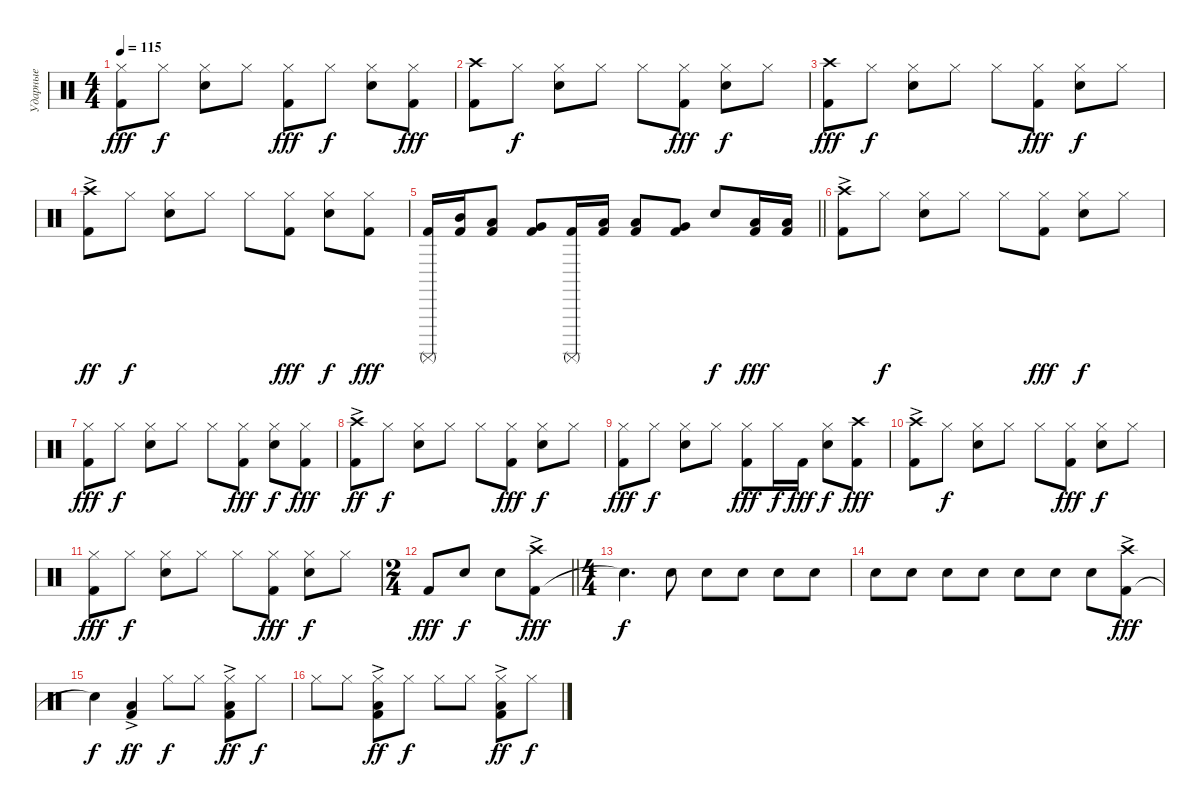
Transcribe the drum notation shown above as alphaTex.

\track ("Ударные" "Ударные") {instrument percussion}
\staff {score}
\articulation defaults
\ts (4 4)
\tempo 115
\clef neutral
\ks c
("Kick (hit) 2" "Hi-Hat (closed)").8{dy fff} "Hi-Hat (closed)".8{dy f} ("Snare (hit) 2" "Hi-Hat (closed)").8 "Hi-Hat (closed)".8 ("Kick (hit) 2" "Hi-Hat (closed)").8{dy fff} "Hi-Hat (closed)".8{dy f} ("Snare (hit) 2" "Hi-Hat (closed)").8 ("Kick (hit) 2" "Hi-Hat (closed)").8{dy fff} |
("Kick (hit) 2" "Crash high (hit)").8 "Hi-Hat (closed)".8{dy f} ("Snare (hit) 2" "Hi-Hat (closed)").8 "Hi-Hat (closed)".8 "Hi-Hat (closed)".8 ("Kick (hit) 2" "Hi-Hat (closed)").8{dy fff} ("Snare (hit) 2" "Hi-Hat (closed)").8{dy f} "Hi-Hat (closed)".8 |
("Kick (hit) 2" "Crash high (hit)").8{dy fff} "Hi-Hat (closed)".8{dy f} ("Snare (hit) 2" "Hi-Hat (closed)").8 "Hi-Hat (closed)".8 "Hi-Hat (closed)".8 ("Kick (hit) 2" "Hi-Hat (closed)").8{dy fff} ("Snare (hit) 2" "Hi-Hat (closed)").8{dy f} "Hi-Hat (closed)".8 |
("Kick (hit) 2" "Crash high (hit)"{ac}).8{dy ff} "Hi-Hat (closed)".8{dy f} ("Snare (hit) 2" "Hi-Hat (closed)").8 "Hi-Hat (closed)".8 "Hi-Hat (closed)".8 ("Kick (hit) 2" "Hi-Hat (closed)").8{dy fff} ("Snare (hit) 2" "Hi-Hat (closed)").8{dy f} ("Kick (hit) 2" "Hi-Hat (closed)").8{dy fff} |
\barLineRight lightlight
("Kick (hit) 2" "Surdo (mute)").16 ("Kick (hit) 2" "Mid Tom (hit)").16 ("Kick (hit) 2" "Low Tom (hit)").8 ("Kick (hit) 2" "Very Low Tom (hit)").8 ("Kick (hit) 2" "Surdo (mute)").16 ("Kick (hit) 2" "Low Tom (hit)").16 ("Kick (hit) 2" "Low Tom (hit)").8 ("Kick (hit) 2" "Very Low Tom (hit)").8 "Snare (hit) 2".8{dy f} ("Kick (hit) 2" "Low Tom (hit)").16{dy fff} ("Kick (hit) 2" "Low Tom (hit)").16 |
("Kick (hit) 2" "Crash high (hit)"{ac}).8 "Hi-Hat (closed)".8{dy f} ("Snare (hit) 2" "Hi-Hat (closed)").8 "Hi-Hat (closed)".8 "Hi-Hat (closed)".8 ("Kick (hit) 2" "Hi-Hat (closed)").8{dy fff} ("Snare (hit) 2" "Hi-Hat (closed)").8{dy f} "Hi-Hat (closed)".8 |
("Kick (hit) 2" "Hi-Hat (closed)").8{dy fff} "Hi-Hat (closed)".8{dy f} ("Snare (hit) 2" "Hi-Hat (closed)").8 "Hi-Hat (closed)".8 "Hi-Hat (closed)".8 ("Kick (hit) 2" "Hi-Hat (closed)").8{dy fff} ("Snare (hit) 2" "Hi-Hat (closed)").8{dy f} ("Kick (hit) 2" "Hi-Hat (closed)").8{dy fff} |
("Kick (hit) 2" "Crash high (hit)"{ac}).8{dy ff} "Hi-Hat (closed)".8{dy f} ("Snare (hit) 2" "Hi-Hat (closed)").8 "Hi-Hat (closed)".8 "Hi-Hat (closed)".8 ("Kick (hit) 2" "Hi-Hat (closed)").8{dy fff} ("Snare (hit) 2" "Hi-Hat (closed)").8{dy f} "Hi-Hat (closed)".8 |
("Kick (hit) 2" "Hi-Hat (closed)").8{dy fff} "Hi-Hat (closed)".8{dy f} ("Snare (hit) 2" "Hi-Hat (closed)").8 "Hi-Hat (closed)".8 ("Kick (hit) 2" "Hi-Hat (closed)").8{dy fff} "Hi-Hat (closed)".16{dy f} "Kick (hit) 2".16{dy fff} ("Snare (hit) 2" "Hi-Hat (closed)").8{dy f} ("Kick (hit) 2" "Crash high (hit)").8{dy fff} |
("Kick (hit) 2" "Crash high (hit)"{ac}).8 "Hi-Hat (closed)".8{dy f} ("Snare (hit) 2" "Hi-Hat (closed)").8 "Hi-Hat (closed)".8 "Hi-Hat (closed)".8 ("Kick (hit) 2" "Hi-Hat (closed)").8{dy fff} ("Snare (hit) 2" "Hi-Hat (closed)").8{dy f} "Hi-Hat (closed)".8 |
("Kick (hit) 2" "Hi-Hat (closed)").8{dy fff} "Hi-Hat (closed)".8{dy f} ("Snare (hit) 2" "Hi-Hat (closed)").8 "Hi-Hat (closed)".8 "Hi-Hat (closed)".8 ("Kick (hit) 2" "Hi-Hat (closed)").8{dy fff} ("Snare (hit) 2" "Hi-Hat (closed)").8{dy f} "Hi-Hat (closed)".8 |
\ts (2 4)
\barLineRight lightlight "Kick (hit) 2".8{dy fff} "Snare (hit) 2".8{dy f} "Snare (hit) 2".8
("Kick (hit) 2" "Crash high (hit)"{ac}).8{dy fff} |
\ts (4 4)
"Snare (hit)"{t}.4{d dy f} "Snare (hit) 2".8 "Snare (hit) 2".8 "Snare (hit) 2".8 "Snare (hit) 2".8 "Snare (hit) 2".8 |
"Snare (hit) 2".8 "Snare (hit) 2".8 "Snare (hit) 2".8 "Snare (hit) 2".8 "Snare (hit) 2".8 "Snare (hit) 2".8 "Snare (hit) 2".8 ("Kick (hit) 2" "Crash high (hit)"{ac}).8{dy fff} |
"Snare (hit)"{t}.4{dy f} ("Kick (hit) 2" "Low Floor Tom (hit)"{ac}).4{dy ff} "Hi-Hat (closed)".8{dy f} "Hi-Hat (closed)".8 ("Kick (hit) 2" "Low Floor Tom (hit)"{ac} "Hi-Hat (closed)").8{dy ff} "Hi-Hat (closed)".8{dy f} |
"Hi-Hat (closed)".8 "Hi-Hat (closed)".8 ("Kick (hit) 2" "Low Floor Tom (hit)"{ac} "Hi-Hat (closed)").8{dy ff} "Hi-Hat (closed)".8{dy f} "Hi-Hat (closed)".8 "Hi-Hat (closed)".8 ("Kick (hit) 2" "Low Floor Tom (hit)"{ac} "Hi-Hat (closed)").8{dy ff} "Hi-Hat (closed)".8{dy f}
